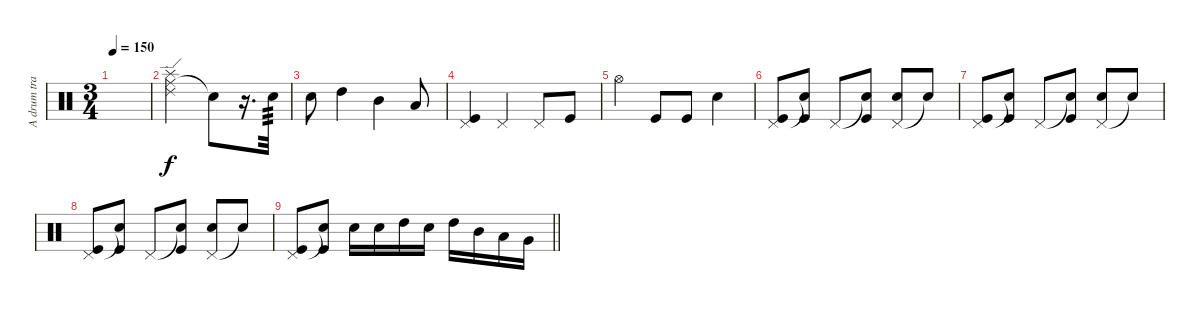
\track ("A drum track I added for fun" "A drum tra") {instrument percussion}
\staff {score}
\articulation defaults
\ts (3 4)
\tempo 150
\clef neutral
\ks c
|
("Ride (middle)" "Ride (edge) 2" "Splash (hit)").2 "Snare (hit)"{t}.8 r.16{d} "Electric Snare (hit)".32{tp 3} |
"Electric Snare (hit)".8 "High Tom (hit)".4 "Mid Tom (hit)".4 "Low Tom (hit)".8 |
("Pedal Hi-Hat (hit)" "Kick (hit)").4 "Pedal Hi-Hat (hit)".4 "Pedal Hi-Hat (hit)".8 "Kick (hit)".8 |
"Hi-Hat (open)".4 "Kick (hit)".8 "Kick (hit)".8 "Electric Snare (hit)".4 |
("Pedal Hi-Hat (hit)" "Kick (hit)").8 ("Snare (hit)"{t} "Kick (hit)").8 "Pedal Hi-Hat (hit)".8 ("Snare (hit)"{t} "Kick (hit)").8 ("Pedal Hi-Hat (hit)" "Electric Snare (hit)").8 "Snare (hit)"{t}.8 |
("Pedal Hi-Hat (hit)" "Kick (hit)").8 ("Snare (hit)"{t} "Kick (hit)").8 "Pedal Hi-Hat (hit)".8 ("Snare (hit)"{t} "Kick (hit)").8 ("Pedal Hi-Hat (hit)" "Electric Snare (hit)").8 "Snare (hit)"{t}.8 |
("Pedal Hi-Hat (hit)" "Kick (hit)").8 ("Snare (hit)"{t} "Kick (hit)").8 "Pedal Hi-Hat (hit)".8 ("Snare (hit)"{t} "Kick (hit)").8 ("Pedal Hi-Hat (hit)" "Electric Snare (hit)").8 "Snare (hit)"{t}.8 |
\barLineRight lightlight
("Pedal Hi-Hat (hit)" "Kick (hit)").8 ("Snare (hit)"{t} "Kick (hit)").8 "Electric Snare (hit)".16 "Electric Snare (hit)".16 "High Tom (hit)".16 "Electric Snare (hit)".16 "High Tom (hit)".16 "Mid Tom (hit)".16 "Low Tom (hit)".16 "Very Low Tom (hit)".16
